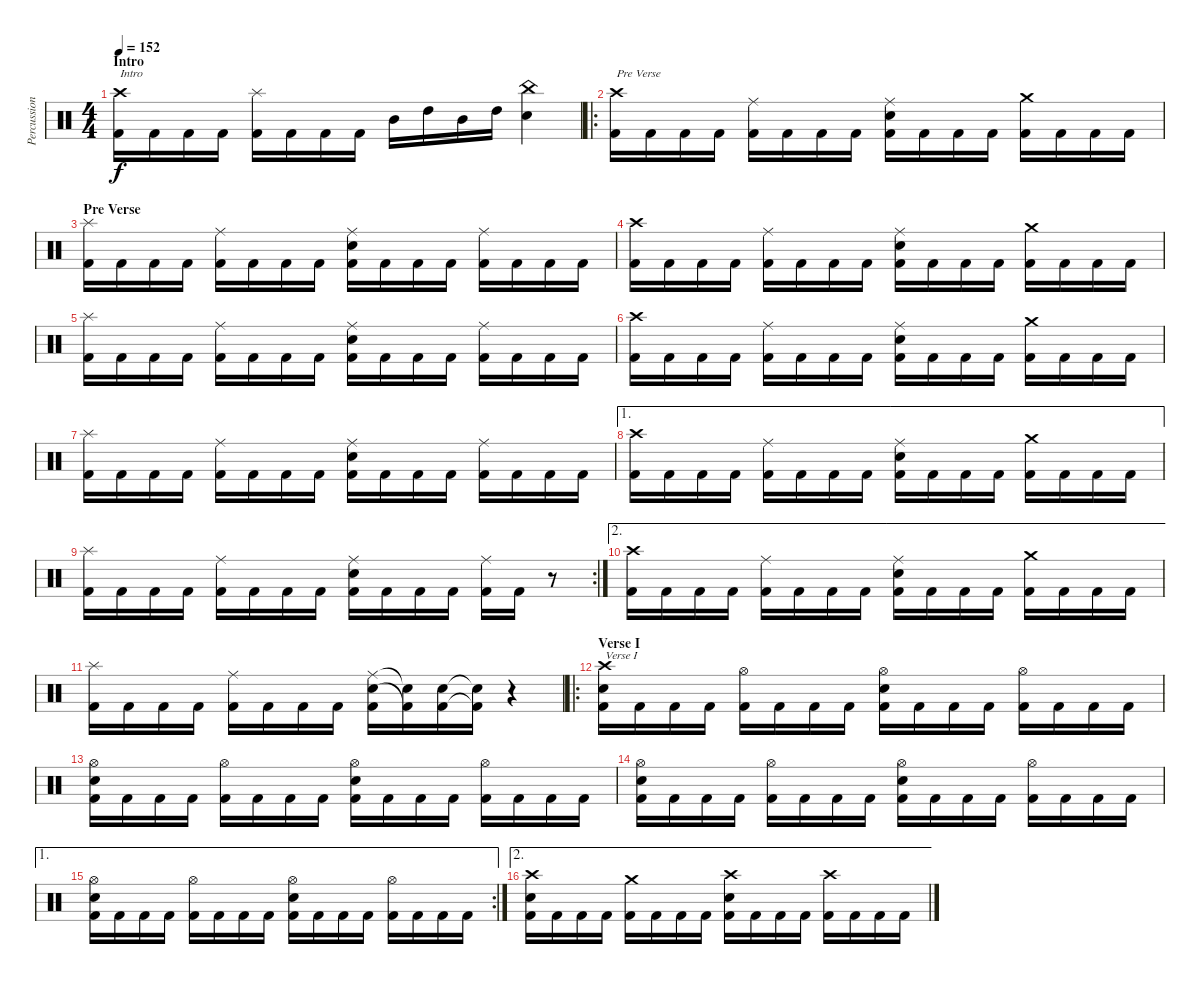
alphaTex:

\track ("Percussion" "Percussion") {instrument percussion}
\staff {score}
\articulation defaults
\ts (4 4)
\section ("" "Intro")
\tempo 152
\clef neutral
\ks c
("Crash high (hit)" "Kick (hit) 2").16{txt "Intro" dy f} "Kick (hit) 2".16 "Kick (hit) 2".16 "Kick (hit) 2".16 ("Splash (hit)" "Kick (hit) 2").16 "Kick (hit) 2".16 "Kick (hit) 2".16 "Kick (hit) 2".16 "Mid Tom (hit)".16 "High Tom (hit)".16 "Mid Tom (hit)".16 "High Tom (hit)".16 ("China (hit)" "Electric Snare (hit)").4 |
\ro
("Crash high (hit)" "Kick (hit) 2").16{txt "Pre Verse"} "Kick (hit) 2".16 "Kick (hit) 2".16 "Kick (hit) 2".16 ("Ride (middle)" "Kick (hit) 2").16 "Kick (hit) 2".16 "Kick (hit) 2".16 "Kick (hit) 2".16 ("Ride (middle)" "Electric Snare (hit)" "Kick (hit) 2").16 "Kick (hit) 2".16 "Kick (hit) 2".16 "Kick (hit) 2".16 ("Crash medium (hit)" "Kick (hit) 2").16 "Kick (hit) 2".16 "Kick (hit) 2".16 "Kick (hit) 2".16 |
\section ("" "Pre Verse")
("Splash (hit)" "Kick (hit) 2").16 "Kick (hit) 2".16 "Kick (hit) 2".16 "Kick (hit) 2".16 ("Ride (middle)" "Kick (hit) 2").16 "Kick (hit) 2".16 "Kick (hit) 2".16 "Kick (hit) 2".16 ("Ride (middle)" "Electric Snare (hit)" "Kick (hit) 2").16 "Kick (hit) 2".16 "Kick (hit) 2".16 "Kick (hit) 2".16 ("Ride (middle)" "Kick (hit) 2").16 "Kick (hit) 2".16 "Kick (hit) 2".16 "Kick (hit) 2".16 |
("Crash high (hit)" "Kick (hit) 2").16 "Kick (hit) 2".16 "Kick (hit) 2".16 "Kick (hit) 2".16 ("Ride (middle)" "Kick (hit) 2").16 "Kick (hit) 2".16 "Kick (hit) 2".16 "Kick (hit) 2".16 ("Ride (middle)" "Electric Snare (hit)" "Kick (hit) 2").16 "Kick (hit) 2".16 "Kick (hit) 2".16 "Kick (hit) 2".16 ("Crash medium (hit)" "Kick (hit) 2").16 "Kick (hit) 2".16 "Kick (hit) 2".16 "Kick (hit) 2".16 |
("Splash (hit)" "Kick (hit) 2").16 "Kick (hit) 2".16 "Kick (hit) 2".16 "Kick (hit) 2".16 ("Ride (middle)" "Kick (hit) 2").16 "Kick (hit) 2".16 "Kick (hit) 2".16 "Kick (hit) 2".16 ("Ride (middle)" "Electric Snare (hit)" "Kick (hit) 2").16 "Kick (hit) 2".16 "Kick (hit) 2".16 "Kick (hit) 2".16 ("Ride (middle)" "Kick (hit) 2").16 "Kick (hit) 2".16 "Kick (hit) 2".16 "Kick (hit) 2".16 |
("Crash high (hit)" "Kick (hit) 2").16 "Kick (hit) 2".16 "Kick (hit) 2".16 "Kick (hit) 2".16 ("Ride (middle)" "Kick (hit) 2").16 "Kick (hit) 2".16 "Kick (hit) 2".16 "Kick (hit) 2".16 ("Ride (middle)" "Electric Snare (hit)" "Kick (hit) 2").16 "Kick (hit) 2".16 "Kick (hit) 2".16 "Kick (hit) 2".16 ("Crash medium (hit)" "Kick (hit) 2").16 "Kick (hit) 2".16 "Kick (hit) 2".16 "Kick (hit) 2".16 |
("Splash (hit)" "Kick (hit) 2").16 "Kick (hit) 2".16 "Kick (hit) 2".16 "Kick (hit) 2".16 ("Ride (middle)" "Kick (hit) 2").16 "Kick (hit) 2".16 "Kick (hit) 2".16 "Kick (hit) 2".16 ("Ride (middle)" "Electric Snare (hit)" "Kick (hit) 2").16 "Kick (hit) 2".16 "Kick (hit) 2".16 "Kick (hit) 2".16 ("Ride (middle)" "Kick (hit) 2").16 "Kick (hit) 2".16 "Kick (hit) 2".16 "Kick (hit) 2".16 |
\ae 1
("Crash high (hit)" "Kick (hit) 2").16 "Kick (hit) 2".16 "Kick (hit) 2".16 "Kick (hit) 2".16 ("Ride (middle)" "Kick (hit) 2").16 "Kick (hit) 2".16 "Kick (hit) 2".16 "Kick (hit) 2".16 ("Ride (middle)" "Electric Snare (hit)" "Kick (hit) 2").16 "Kick (hit) 2".16 "Kick (hit) 2".16 "Kick (hit) 2".16 ("Crash medium (hit)" "Kick (hit) 2").16 "Kick (hit) 2".16 "Kick (hit) 2".16 "Kick (hit) 2".16 |
\rc 2
("Splash (hit)" "Kick (hit) 2").16 "Kick (hit) 2".16 "Kick (hit) 2".16 "Kick (hit) 2".16 ("Ride (middle)" "Kick (hit) 2").16 "Kick (hit) 2".16 "Kick (hit) 2".16 "Kick (hit) 2".16 ("Ride (middle)" "Electric Snare (hit)" "Kick (hit) 2").16 "Kick (hit) 2".16 "Kick (hit) 2".16 "Kick (hit) 2".16 ("Ride (middle)" "Kick (hit) 2").16 "Kick (hit) 2".16 r.8 |
\ae 2
("Crash high (hit)" "Kick (hit) 2").16 "Kick (hit) 2".16 "Kick (hit) 2".16 "Kick (hit) 2".16 ("Ride (middle)" "Kick (hit) 2").16 "Kick (hit) 2".16 "Kick (hit) 2".16 "Kick (hit) 2".16 ("Ride (middle)" "Electric Snare (hit)" "Kick (hit) 2").16 "Kick (hit) 2".16 "Kick (hit) 2".16 "Kick (hit) 2".16 ("Crash medium (hit)" "Kick (hit) 2").16 "Kick (hit) 2".16 "Kick (hit) 2".16 "Kick (hit) 2".16 |
("Splash (hit)" "Kick (hit) 2").16 "Kick (hit) 2".16 "Kick (hit) 2".16 "Kick (hit) 2".16 ("Ride (middle)" "Kick (hit) 2").16 "Kick (hit) 2".16 "Kick (hit) 2".16 "Kick (hit) 2".16 ("Ride (middle)" "Electric Snare (hit)" "Kick (hit) 2").16 ("Electric Snare (hit)"{t} "Kick (hit) 2"{t}).16 ("Electric Snare (hit)" "Kick (hit) 2").16 ("Electric Snare (hit)"{t} "Kick (hit) 2"{t}).16 r.4 |
\ro
\section ("" "Verse I")
("Crash high (hit)" "Electric Snare (hit)" "Kick (hit) 2").16{txt "Verse I"} "Kick (hit) 2".16 "Kick (hit) 2".16 "Kick (hit) 2".16 ("Hi-Hat (open)" "Kick (hit) 2").16 "Kick (hit) 2".16 "Kick (hit) 2".16 "Kick (hit) 2".16 ("Hi-Hat (open)" "Electric Snare (hit)" "Kick (hit) 2").16 "Kick (hit) 2".16 "Kick (hit) 2".16 "Kick (hit) 2".16 ("Hi-Hat (open)" "Kick (hit) 2").16 "Kick (hit) 2".16 "Kick (hit) 2".16 "Kick (hit) 2".16 |
("Hi-Hat (open)" "Electric Snare (hit)" "Kick (hit) 2").16 "Kick (hit) 2".16 "Kick (hit) 2".16 "Kick (hit) 2".16 ("Hi-Hat (open)" "Kick (hit) 2").16 "Kick (hit) 2".16 "Kick (hit) 2".16 "Kick (hit) 2".16 ("Hi-Hat (open)" "Electric Snare (hit)" "Kick (hit) 2").16 "Kick (hit) 2".16 "Kick (hit) 2".16 "Kick (hit) 2".16 ("Hi-Hat (open)" "Kick (hit) 2").16 "Kick (hit) 2".16 "Kick (hit) 2".16 "Kick (hit) 2".16 |
("Hi-Hat (open)" "Electric Snare (hit)" "Kick (hit) 2").16 "Kick (hit) 2".16 "Kick (hit) 2".16 "Kick (hit) 2".16 ("Hi-Hat (open)" "Kick (hit) 2").16 "Kick (hit) 2".16 "Kick (hit) 2".16 "Kick (hit) 2".16 ("Hi-Hat (open)" "Electric Snare (hit)" "Kick (hit) 2").16 "Kick (hit) 2".16 "Kick (hit) 2".16 "Kick (hit) 2".16 ("Hi-Hat (open)" "Kick (hit) 2").16 "Kick (hit) 2".16 "Kick (hit) 2".16 "Kick (hit) 2".16 |
\ae 1
\rc 2
("Hi-Hat (open)" "Electric Snare (hit)" "Kick (hit) 2").16 "Kick (hit) 2".16 "Kick (hit) 2".16 "Kick (hit) 2".16 ("Hi-Hat (open)" "Kick (hit) 2").16 "Kick (hit) 2".16 "Kick (hit) 2".16 "Kick (hit) 2".16 ("Hi-Hat (open)" "Electric Snare (hit)" "Kick (hit) 2").16 "Kick (hit) 2".16 "Kick (hit) 2".16 "Kick (hit) 2".16 ("Hi-Hat (open)" "Kick (hit) 2").16 "Kick (hit) 2".16 "Kick (hit) 2".16 "Kick (hit) 2".16 |
\ae 2
("Crash high (hit)" "Electric Snare (hit)" "Kick (hit) 2").16 "Kick (hit) 2".16 "Kick (hit) 2".16 "Kick (hit) 2".16 ("Crash medium (hit)" "Kick (hit) 2").16 "Kick (hit) 2".16 "Kick (hit) 2".16 "Kick (hit) 2".16 ("Crash high (hit)" "Electric Snare (hit)" "Kick (hit) 2").16 "Kick (hit) 2".16 "Kick (hit) 2".16 "Kick (hit) 2".16 ("Crash high (hit)" "Kick (hit) 2").16 "Kick (hit) 2".16 "Kick (hit) 2".16 "Kick (hit) 2".16
